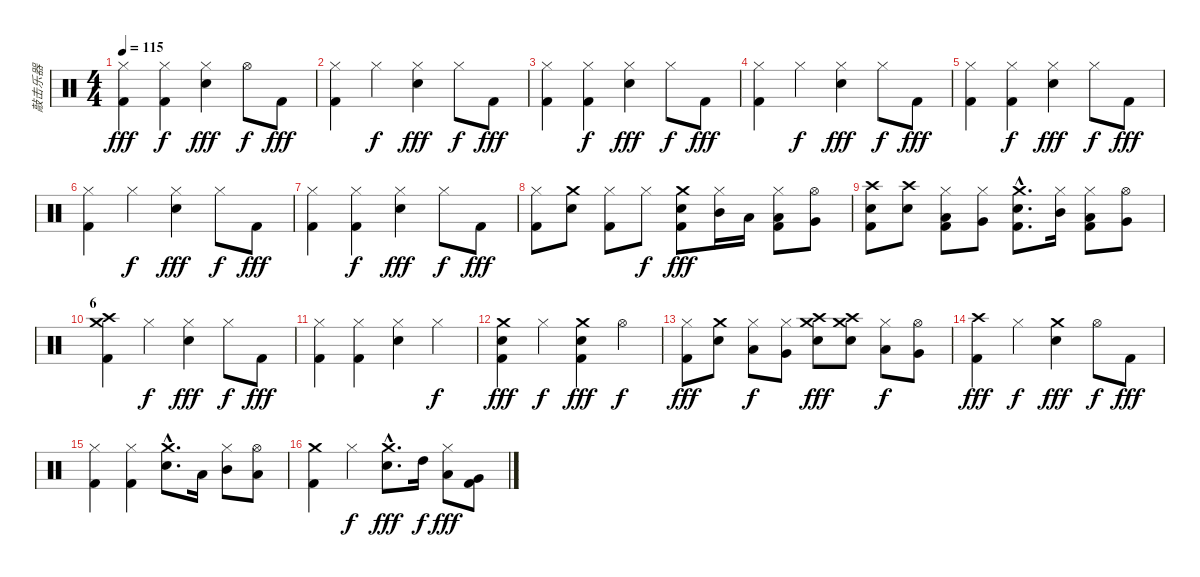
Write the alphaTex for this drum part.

\track ("敲击乐器" "敲击乐器") {instrument percussion}
\staff {score}
\articulation defaults
\ts (4 4)
\tempo 115
\clef neutral
\ks c
("Hi-Hat (closed)" "Kick (hit) 2").4{dy fff} ("Hi-Hat (closed)" "Kick (hit) 2").4{dy f} ("Hi-Hat (closed)" "Snare (hit) 2").4{dy fff} "Hi-Hat (open)".8{dy f} "Kick (hit) 2".8{dy fff} |
("Hi-Hat (closed)" "Kick (hit) 2").4 "Hi-Hat (closed)".4{dy f} ("Hi-Hat (closed)" "Snare (hit) 2").4{dy fff} "Hi-Hat (closed)".8{dy f} "Kick (hit) 2".8{dy fff} |
("Hi-Hat (closed)" "Kick (hit) 2").4 ("Hi-Hat (closed)" "Kick (hit) 2").4{dy f} ("Hi-Hat (closed)" "Snare (hit) 2").4{dy fff} "Hi-Hat (closed)".8{dy f} "Kick (hit) 2".8{dy fff} |
("Hi-Hat (closed)" "Kick (hit) 2").4 "Hi-Hat (closed)".4{dy f} ("Hi-Hat (closed)" "Snare (hit) 2").4{dy fff} "Hi-Hat (closed)".8{dy f} "Kick (hit) 2".8{dy fff} |
("Hi-Hat (closed)" "Kick (hit) 2").4 ("Hi-Hat (closed)" "Kick (hit) 2").4{dy f} ("Hi-Hat (closed)" "Snare (hit) 2").4{dy fff} "Hi-Hat (closed)".8{dy f} "Kick (hit) 2".8{dy fff} |
("Hi-Hat (closed)" "Kick (hit) 2").4 "Hi-Hat (closed)".4{dy f} ("Hi-Hat (closed)" "Snare (hit) 2").4{dy fff} "Hi-Hat (closed)".8{dy f} "Kick (hit) 2".8{dy fff} |
("Hi-Hat (closed)" "Kick (hit) 2").4 ("Hi-Hat (closed)" "Kick (hit) 2").4{dy f} ("Hi-Hat (closed)" "Snare (hit) 2").4{dy fff} "Hi-Hat (closed)".8{dy f} "Kick (hit) 2".8{dy fff} |
("Hi-Hat (closed)" "Kick (hit) 2").8 ("Crash medium (hit)" "Snare (hit) 2").8 ("Hi-Hat (closed)" "Kick (hit) 2").8 "Hi-Hat (closed)".8{dy f} ("Crash medium (hit)" "Snare (hit) 2" "Kick (hit) 2").8{dy fff} ("Hi-Hat (closed)" "Mid Tom (hit)").16 "Low Tom (hit)".16 ("Hi-Hat (closed)" "Low Tom (hit)" "Kick (hit) 2").8 ("Hi-Hat (open)" "Very Low Tom (hit)").8 |
("Crash high (hit)" "Snare (hit) 2" "Kick (hit) 2").8 ("Crash high (hit)" "Snare (hit) 2").8 ("Hi-Hat (closed)" "Low Tom (hit)" "Kick (hit) 2").8 ("Hi-Hat (closed)" "Very Low Tom (hit)").8 ("Crash medium (hit)"{hac} "Snare (hit) 2"{hac} "Kick (hit) 2"{hac}).8{d} ("Hi-Hat (closed)" "Mid Tom (hit)").16 ("Hi-Hat (closed)" "Low Tom (hit)" "Kick (hit) 2").8 ("Hi-Hat (open)" "Very Low Tom (hit)").8 |
\section ("" "6")
("Crash medium (hit)" "Crash high (hit)" "Kick (hit) 2").4 "Hi-Hat (closed)".4{dy f} ("Hi-Hat (closed)" "Snare (hit) 2").4{dy fff} "Hi-Hat (closed)".8{dy f} "Kick (hit) 2".8{dy fff} |
("Hi-Hat (closed)" "Kick (hit) 2").4 ("Hi-Hat (closed)" "Kick (hit) 2").4 ("Hi-Hat (closed)" "Snare (hit) 2").4 "Hi-Hat (closed)".4{dy f} |
("Crash medium (hit)" "Snare (hit) 2" "Kick (hit) 2").4{dy fff} "Hi-Hat (closed)".4{dy f} ("Crash medium (hit)" "Snare (hit) 2" "Kick (hit) 2").4{dy fff} "Hi-Hat (open)".4{dy f} |
("Hi-Hat (closed)" "Kick (hit) 2").8{dy fff} ("Crash medium (hit)" "Snare (hit) 2").8 ("Hi-Hat (closed)" "Low Tom (hit)").8{dy f} ("Hi-Hat (closed)" "Very Low Tom (hit)").8 ("Crash high (hit)" "Crash medium (hit)" "Snare (hit) 2").8{dy fff} ("Crash high (hit)" "Crash medium (hit)" "Snare (hit) 2").8 ("Hi-Hat (closed)" "Low Tom (hit)").8{dy f} ("Hi-Hat (open)" "Very Low Tom (hit)").8 |
("Crash high (hit)" "Kick (hit) 2").4{dy fff} "Hi-Hat (closed)".4{dy f} ("Crash medium (hit)" "Snare (hit) 2").4{dy fff} "Hi-Hat (open)".8{dy f} "Kick (hit) 2".8{dy fff} |
("Hi-Hat (closed)" "Kick (hit) 2").4 ("Hi-Hat (closed)" "Kick (hit) 2").4 ("Crash medium (hit)"{hac} "Snare (hit) 2"{hac}).8{d} "Low Tom (hit)".16 ("Hi-Hat (closed)" "Mid Tom (hit)").8 ("Hi-Hat (open)" "Low Tom (hit)").8 |
("Crash medium (hit)" "Kick (hit) 2").4 "Hi-Hat (closed)".4{dy f} ("Crash medium (hit)"{hac} "Snare (hit) 2"{hac}).8{d dy fff} "High Tom (hit)".16{dy f} ("Hi-Hat (closed)" "Low Tom (hit)").8{dy fff} ("Very Low Tom (hit)" "Kick (hit) 2").8
